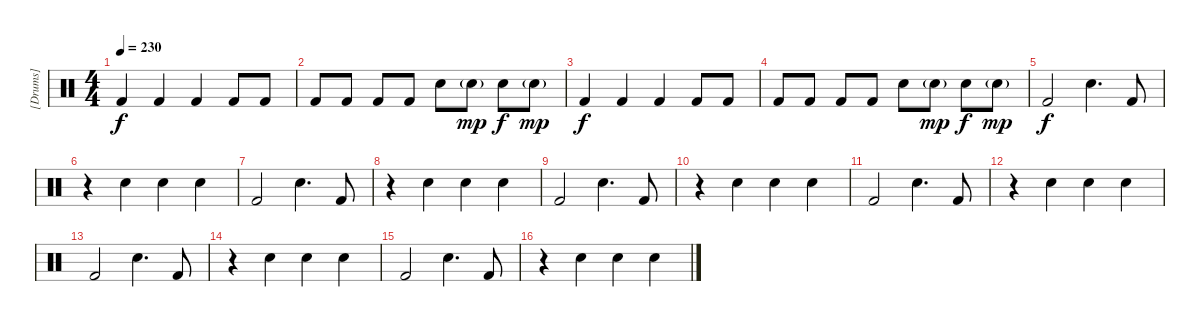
\track ("[Drums]" "[Drums]") {instrument percussion}
\staff {score}
\articulation defaults
\ts (4 4)
\tempo 230
\clef neutral
\ks c "Kick (hit) 2".4{dy f} "Kick (hit) 2".4 "Kick (hit) 2".4 "Kick (hit) 2".8 "Kick (hit) 2".8
|
"Kick (hit) 2".8 "Kick (hit) 2".8 "Kick (hit) 2".8 "Kick (hit) 2".8 "Electric Snare (hit)".8 "Electric Snare (hit)"{g}.8{dy mp} "Electric Snare (hit)".8{dy f} "Electric Snare (hit)"{g}.8{dy mp} |
"Kick (hit) 2".4{dy f} "Kick (hit) 2".4 "Kick (hit) 2".4 "Kick (hit) 2".8 "Kick (hit) 2".8 |
"Kick (hit) 2".8 "Kick (hit) 2".8 "Kick (hit) 2".8 "Kick (hit) 2".8 "Electric Snare (hit)".8 "Electric Snare (hit)"{g}.8{dy mp} "Electric Snare (hit)".8{dy f} "Electric Snare (hit)"{g}.8{dy mp} |
"Kick (hit) 2".2{dy f} "Electric Snare (hit)".4{d} "Kick (hit) 2".8 |
r.4 "Hand Clap (hit)".4 "Electric Snare (hit)".4 "Hand Clap (hit)".4 |
"Kick (hit) 2".2 "Electric Snare (hit)".4{d} "Kick (hit) 2".8 |
r.4 "Hand Clap (hit)".4 "Electric Snare (hit)".4 "Hand Clap (hit)".4 |
"Kick (hit) 2".2 "Electric Snare (hit)".4{d} "Kick (hit) 2".8 |
r.4 "Hand Clap (hit)".4 "Electric Snare (hit)".4 "Hand Clap (hit)".4 |
"Kick (hit) 2".2 "Electric Snare (hit)".4{d} "Kick (hit) 2".8 |
r.4 "Hand Clap (hit)".4 "Electric Snare (hit)".4 "Hand Clap (hit)".4 |
"Kick (hit) 2".2 "Electric Snare (hit)".4{d} "Kick (hit) 2".8 |
r.4 "Hand Clap (hit)".4 "Electric Snare (hit)".4 "Hand Clap (hit)".4 |
"Kick (hit) 2".2 "Electric Snare (hit)".4{d} "Kick (hit) 2".8 |
r.4 "Hand Clap (hit)".4 "Electric Snare (hit)".4 "Hand Clap (hit)".4
